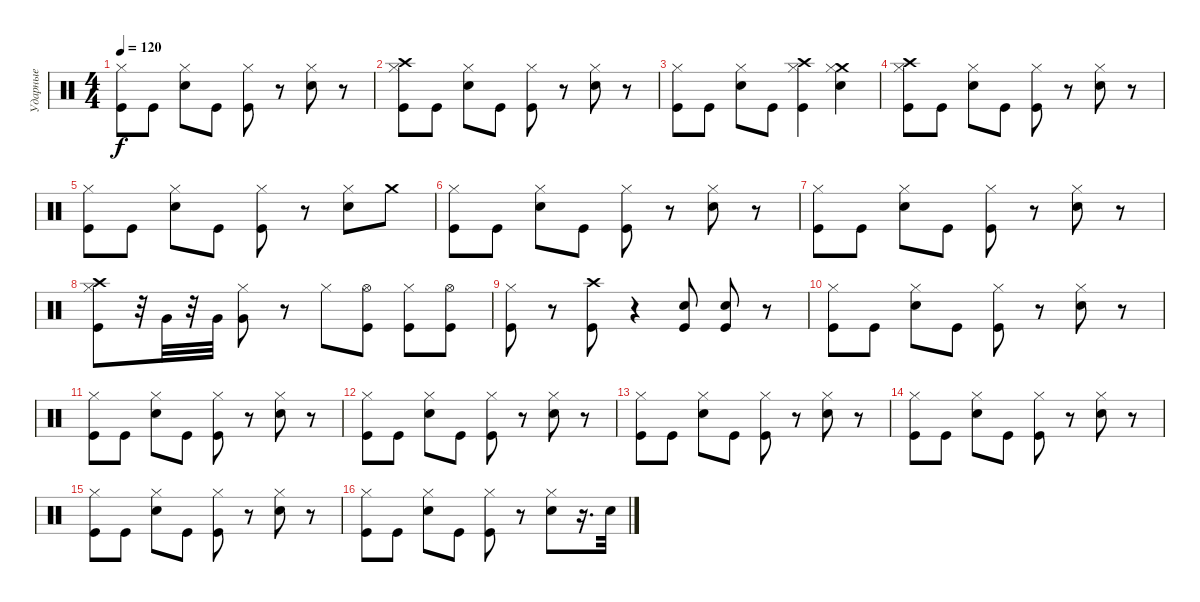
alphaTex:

\track ("Ударные" "Ударные") {instrument percussion}
\staff {score}
\articulation defaults
\ts (4 4)
\tempo 120
\clef neutral
\ks c
("Hi-Hat (closed)" "Kick (hit)").8{dy f} "Kick (hit)".8 ("Hi-Hat (closed)" "Snare (hit) 2").8 "Kick (hit)".8 ("Hi-Hat (closed)" "Kick (hit)").8 r.8 ("Hi-Hat (closed)" "Snare (hit) 2").8 r.8 |
("Crash high (hit)" "Hi-Hat (closed)" "Kick (hit)").8 "Kick (hit)".8 ("Hi-Hat (closed)" "Snare (hit) 2").8 "Kick (hit)".8 ("Hi-Hat (closed)" "Kick (hit)").8 r.8 ("Hi-Hat (closed)" "Snare (hit) 2").8 r.8 |
("Hi-Hat (closed)" "Kick (hit)").8 "Kick (hit)".8 ("Hi-Hat (closed)" "Snare (hit) 2").8 "Kick (hit)".8 ("Crash high (hit)" "Hi-Hat (closed)" "Kick (hit)").4 ("Crash medium (hit)" "Hi-Hat (closed)" "Snare (hit) 2").4 |
("Crash high (hit)" "Hi-Hat (closed)" "Kick (hit)").8 "Kick (hit)".8 ("Hi-Hat (closed)" "Snare (hit) 2").8 "Kick (hit)".8 ("Hi-Hat (closed)" "Kick (hit)").8 r.8 ("Hi-Hat (closed)" "Snare (hit) 2").8 r.8 |
("Hi-Hat (closed)" "Kick (hit)").8 "Kick (hit)".8 ("Hi-Hat (closed)" "Snare (hit) 2").8 "Kick (hit)".8 ("Hi-Hat (closed)" "Kick (hit)").8 r.8 ("Hi-Hat (closed)" "Snare (hit) 2").8 "Crash medium (hit)".8 |
("Hi-Hat (closed)" "Kick (hit)").8 "Kick (hit)".8 ("Hi-Hat (closed)" "Snare (hit) 2").8 "Kick (hit)".8 ("Hi-Hat (closed)" "Kick (hit)").8 r.8 ("Hi-Hat (closed)" "Snare (hit) 2").8 r.8 |
("Hi-Hat (closed)" "Kick (hit)").8 "Kick (hit)".8 ("Hi-Hat (closed)" "Snare (hit) 2").8 "Kick (hit)".8 ("Hi-Hat (closed)" "Kick (hit)").8 r.8 ("Hi-Hat (closed)" "Snare (hit) 2").8 r.8 |
("Crash high (hit)" "Hi-Hat (closed)" "Kick (hit)").8 r.32 "Very Low Tom (hit)".32 r.32 "Very Low Tom (hit)".32 ("Very Low Tom (hit)" "Hi-Hat (closed)").8 r.8 "Hi-Hat (closed)".8 ("Kick (hit)" "Hi-Hat (open)").8 ("Hi-Hat (closed)" "Kick (hit)").8 ("Hi-Hat (open)" "Kick (hit)").8 |
("Kick (hit)" "Hi-Hat (closed)").8 r.8 ("Kick (hit)" "Crash high (hit)").8 r.4 ("Kick (hit)" "Electric Snare (hit)").8 ("Kick (hit)" "Electric Snare (hit)").8 r.8 |
("Hi-Hat (closed)" "Kick (hit)").8 "Kick (hit)".8 ("Hi-Hat (closed)" "Snare (hit) 2").8 "Kick (hit)".8 ("Hi-Hat (closed)" "Kick (hit)").8 r.8 ("Hi-Hat (closed)" "Snare (hit) 2").8 r.8 |
("Hi-Hat (closed)" "Kick (hit)").8 "Kick (hit)".8 ("Hi-Hat (closed)" "Snare (hit) 2").8 "Kick (hit)".8 ("Hi-Hat (closed)" "Kick (hit)").8 r.8 ("Hi-Hat (closed)" "Snare (hit) 2").8 r.8 |
("Hi-Hat (closed)" "Kick (hit)").8 "Kick (hit)".8 ("Hi-Hat (closed)" "Snare (hit) 2").8 "Kick (hit)".8 ("Hi-Hat (closed)" "Kick (hit)").8 r.8 ("Hi-Hat (closed)" "Snare (hit) 2").8 r.8 |
("Hi-Hat (closed)" "Kick (hit)").8 "Kick (hit)".8 ("Hi-Hat (closed)" "Snare (hit) 2").8 "Kick (hit)".8 ("Hi-Hat (closed)" "Kick (hit)").8 r.8 ("Hi-Hat (closed)" "Snare (hit) 2").8 r.8 |
("Hi-Hat (closed)" "Kick (hit)").8 "Kick (hit)".8 ("Hi-Hat (closed)" "Snare (hit) 2").8 "Kick (hit)".8 ("Hi-Hat (closed)" "Kick (hit)").8 r.8 ("Hi-Hat (closed)" "Snare (hit) 2").8 r.8 |
("Hi-Hat (closed)" "Kick (hit)").8 "Kick (hit)".8 ("Hi-Hat (closed)" "Snare (hit) 2").8 "Kick (hit)".8 ("Hi-Hat (closed)" "Kick (hit)").8 r.8 ("Hi-Hat (closed)" "Snare (hit) 2").8 r.8 |
("Hi-Hat (closed)" "Kick (hit)").8 "Kick (hit)".8 ("Hi-Hat (closed)" "Snare (hit) 2").8 "Kick (hit)".8 ("Hi-Hat (closed)" "Kick (hit)").8 r.8 ("Hi-Hat (closed)" "Snare (hit) 2").8 r.16{d} "Snare (hit) 2".32
